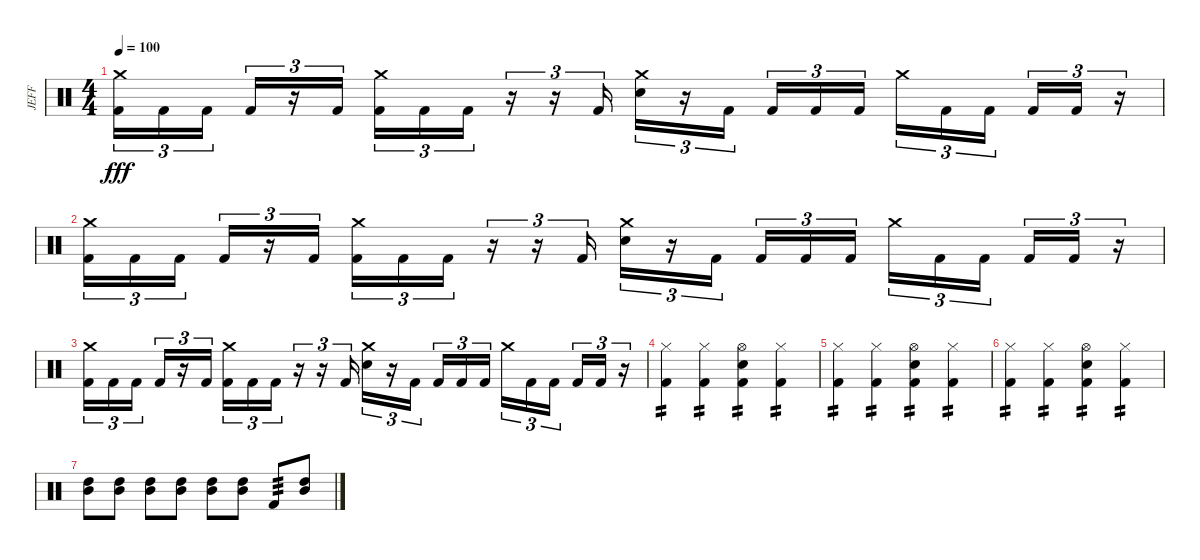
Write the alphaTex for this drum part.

\track ("JEFF" "JEFF") {instrument percussion}
\staff {score}
\articulation defaults
\ts (4 4)
\tempo 100
\clef neutral
\ks c
("Crash medium (hit)" "Kick (hit) 2").16{tu (3 2) dy fff} "Kick (hit) 2".16{tu (3 2)} "Kick (hit) 2".16{tu (3 2) beam splitsecondary} "Kick (hit) 2".16{tu (3 2)} r.16{tu (3 2)} "Kick (hit) 2".16{tu (3 2)} ("Crash medium (hit)" "Kick (hit) 2").16{tu (3 2)} "Kick (hit) 2".16{tu (3 2)} "Kick (hit) 2".16{tu (3 2)} r.16{tu (3 2)} r.16{tu (3 2)} "Kick (hit) 2".16{tu (3 2)} ("Crash medium (hit)" "Electric Snare (hit)").16{tu (3 2)} r.16{tu (3 2)} "Kick (hit) 2".16{tu (3 2) beam splitsecondary} "Kick (hit) 2".16{tu (3 2)} "Kick (hit) 2".16{tu (3 2)} "Kick (hit) 2".16{tu (3 2)} "Crash medium (hit)".16{tu (3 2)} "Kick (hit) 2".16{tu (3 2)} "Kick (hit) 2".16{tu (3 2) beam splitsecondary} "Kick (hit) 2".16{tu (3 2)} "Kick (hit) 2".16{tu (3 2)} r.16{tu (3 2)} |
("Crash medium (hit)" "Kick (hit) 2").16{tu (3 2)} "Kick (hit) 2".16{tu (3 2)} "Kick (hit) 2".16{tu (3 2) beam splitsecondary} "Kick (hit) 2".16{tu (3 2)} r.16{tu (3 2)} "Kick (hit) 2".16{tu (3 2)} ("Crash medium (hit)" "Kick (hit) 2").16{tu (3 2)} "Kick (hit) 2".16{tu (3 2)} "Kick (hit) 2".16{tu (3 2)} r.16{tu (3 2)} r.16{tu (3 2)} "Kick (hit) 2".16{tu (3 2)} ("Crash medium (hit)" "Electric Snare (hit)").16{tu (3 2)} r.16{tu (3 2)} "Kick (hit) 2".16{tu (3 2) beam splitsecondary} "Kick (hit) 2".16{tu (3 2)} "Kick (hit) 2".16{tu (3 2)} "Kick (hit) 2".16{tu (3 2)} "Crash medium (hit)".16{tu (3 2)} "Kick (hit) 2".16{tu (3 2)} "Kick (hit) 2".16{tu (3 2) beam splitsecondary} "Kick (hit) 2".16{tu (3 2)} "Kick (hit) 2".16{tu (3 2)} r.16{tu (3 2)} |
("Crash medium (hit)" "Kick (hit) 2").16{tu (3 2)} "Kick (hit) 2".16{tu (3 2)} "Kick (hit) 2".16{tu (3 2) beam splitsecondary} "Kick (hit) 2".16{tu (3 2)} r.16{tu (3 2)} "Kick (hit) 2".16{tu (3 2)} ("Crash medium (hit)" "Kick (hit) 2").16{tu (3 2)} "Kick (hit) 2".16{tu (3 2)} "Kick (hit) 2".16{tu (3 2)} r.16{tu (3 2)} r.16{tu (3 2)} "Kick (hit) 2".16{tu (3 2)} ("Crash medium (hit)" "Electric Snare (hit)").16{tu (3 2)} r.16{tu (3 2)} "Kick (hit) 2".16{tu (3 2) beam splitsecondary} "Kick (hit) 2".16{tu (3 2)} "Kick (hit) 2".16{tu (3 2)} "Kick (hit) 2".16{tu (3 2)} "Crash medium (hit)".16{tu (3 2)} "Kick (hit) 2".16{tu (3 2)} "Kick (hit) 2".16{tu (3 2) beam splitsecondary} "Kick (hit) 2".16{tu (3 2)} "Kick (hit) 2".16{tu (3 2)} r.16{tu (3 2)} |
("Hi-Hat (closed)" "Kick (hit) 2").4{tp 2} ("Hi-Hat (closed)" "Kick (hit) 2").4{tp 2} ("Hi-Hat (open)" "Electric Snare (hit)" "Kick (hit) 2").4{tp 2} ("Hi-Hat (closed)" "Kick (hit) 2").4{tp 2} |
("Hi-Hat (closed)" "Kick (hit) 2").4{tp 2} ("Hi-Hat (closed)" "Kick (hit) 2").4{tp 2} ("Hi-Hat (open)" "Electric Snare (hit)" "Kick (hit) 2").4{tp 2} ("Hi-Hat (closed)" "Kick (hit) 2").4{tp 2} |
("Hi-Hat (closed)" "Kick (hit) 2").4{tp 2} ("Hi-Hat (closed)" "Kick (hit) 2").4{tp 2} ("Hi-Hat (open)" "Electric Snare (hit)" "Kick (hit) 2").4{tp 2} ("Hi-Hat (closed)" "Kick (hit) 2").4{tp 2} |
("High Tom (hit)" "Mid Tom (hit)").8 ("High Tom (hit)" "Mid Tom (hit)").8 ("High Tom (hit)" "Mid Tom (hit)").8 ("High Tom (hit)" "Mid Tom (hit)").8 ("High Tom (hit)" "Mid Tom (hit)").8 ("High Tom (hit)" "Mid Tom (hit)").8 "Kick (hit) 2".8{tp 3} ("High Tom (hit)" "Mid Tom (hit)").8
